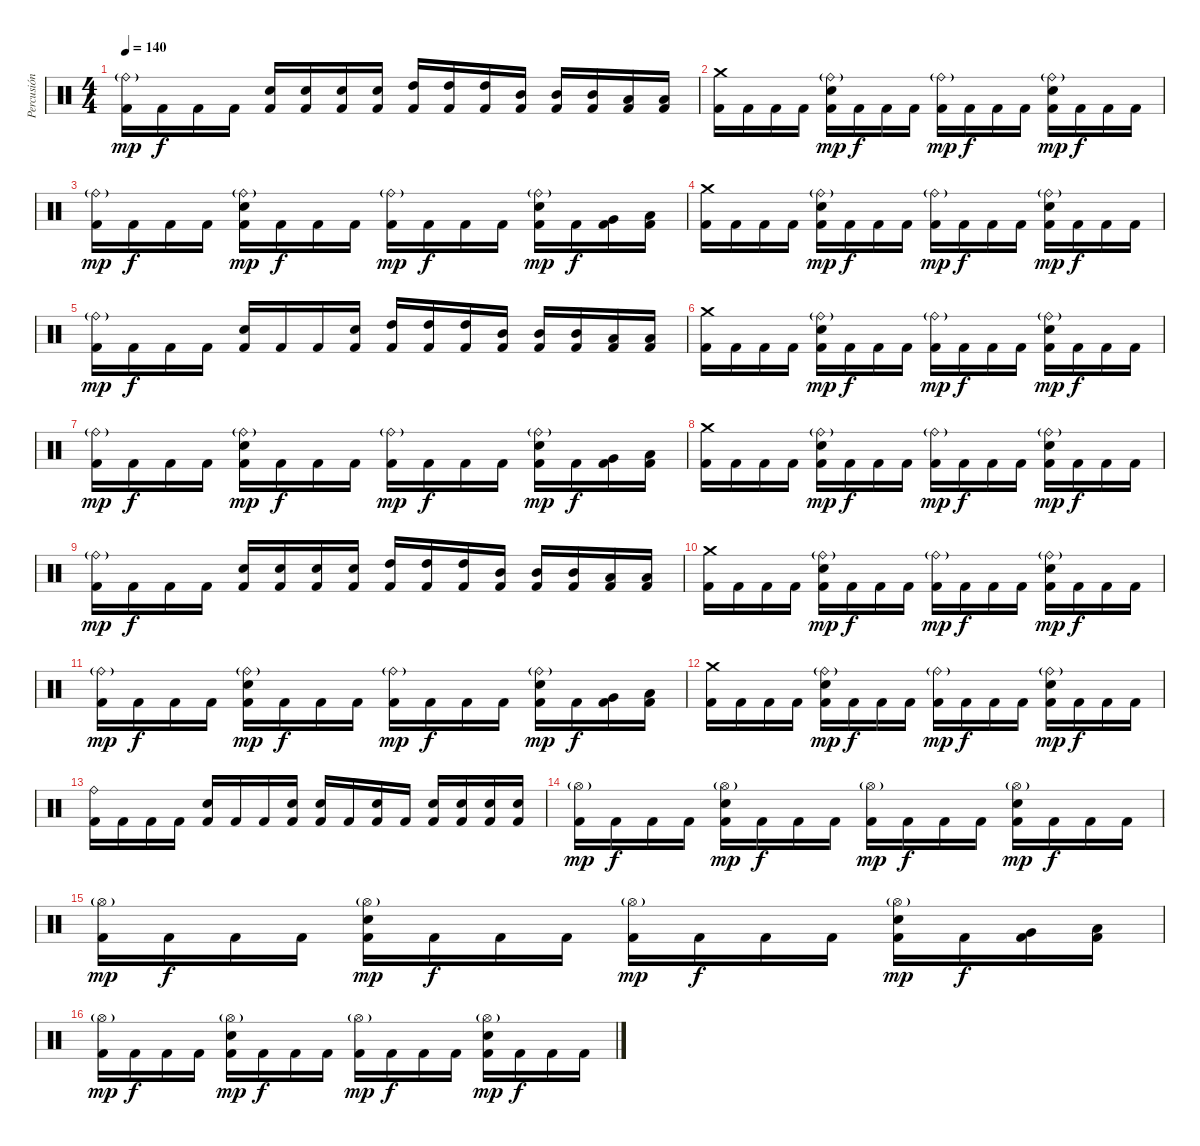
\track ("Percusión" "Percusión") {instrument percussion}
\staff {score}
\articulation defaults
\ts (4 4)
\tempo 140
\clef neutral
\ks c
("Ride (bell)"{g} "Kick (hit) 2").16{dy mp} "Kick (hit) 2".16{dy f} "Kick (hit) 2".16 "Kick (hit) 2".16 ("Electric Snare (hit)" "Kick (hit) 2").16 ("Electric Snare (hit)" "Kick (hit) 2").16 ("Electric Snare (hit)" "Kick (hit) 2").16 ("Electric Snare (hit)" "Kick (hit) 2").16 ("High Tom (hit)" "Kick (hit) 2").16 ("High Tom (hit)" "Kick (hit) 2").16 ("High Tom (hit)" "Kick (hit) 2").16 ("Mid Tom (hit)" "Kick (hit) 2").16 ("Mid Tom (hit)" "Kick (hit) 2").16 ("Mid Tom (hit)" "Kick (hit) 2").16 ("Low Tom (hit)" "Kick (hit) 2").16 ("Low Tom (hit)" "Kick (hit) 2").16 |
("Crash medium (hit)" "Kick (hit) 2").16 "Kick (hit) 2".16 "Kick (hit) 2".16 "Kick (hit) 2".16 ("Ride (bell)"{g} "Electric Snare (hit)" "Kick (hit) 2").16{dy mp} "Kick (hit) 2".16{dy f} "Kick (hit) 2".16 "Kick (hit) 2".16 ("Ride (bell)"{g} "Kick (hit) 2").16{dy mp} "Kick (hit) 2".16{dy f} "Kick (hit) 2".16 "Kick (hit) 2".16 ("Ride (bell)"{g} "Electric Snare (hit)" "Kick (hit) 2").16{dy mp} "Kick (hit) 2".16{dy f} "Kick (hit) 2".16 "Kick (hit) 2".16 |
("Ride (bell)"{g} "Kick (hit) 2").16{dy mp} "Kick (hit) 2".16{dy f} "Kick (hit) 2".16 "Kick (hit) 2".16 ("Ride (bell)"{g} "Electric Snare (hit)" "Kick (hit) 2").16{dy mp} "Kick (hit) 2".16{dy f} "Kick (hit) 2".16 "Kick (hit) 2".16 ("Ride (bell)"{g} "Kick (hit) 2").16{dy mp} "Kick (hit) 2".16{dy f} "Kick (hit) 2".16 "Kick (hit) 2".16 ("Ride (bell)"{g} "Electric Snare (hit)" "Kick (hit) 2").16{dy mp} "Kick (hit) 2".16{dy f} ("Very Low Tom (hit)" "Kick (hit) 2").16 ("Low Floor Tom (hit)" "Kick (hit) 2").16 |
("Crash medium (hit)" "Kick (hit) 2").16 "Kick (hit) 2".16 "Kick (hit) 2".16 "Kick (hit) 2".16 ("Ride (bell)"{g} "Electric Snare (hit)" "Kick (hit) 2").16{dy mp} "Kick (hit) 2".16{dy f} "Kick (hit) 2".16 "Kick (hit) 2".16 ("Ride (bell)"{g} "Kick (hit) 2").16{dy mp} "Kick (hit) 2".16{dy f} "Kick (hit) 2".16 "Kick (hit) 2".16 ("Ride (bell)"{g} "Electric Snare (hit)" "Kick (hit) 2").16{dy mp} "Kick (hit) 2".16{dy f} "Kick (hit) 2".16 "Kick (hit) 2".16 |
("Ride (bell)"{g} "Kick (hit) 2").16{dy mp} "Kick (hit) 2".16{dy f} "Kick (hit) 2".16 "Kick (hit) 2".16 ("Electric Snare (hit)" "Kick (hit) 2").16 "Kick (hit) 2".16 "Kick (hit) 2".16 ("Electric Snare (hit)" "Kick (hit) 2").16 ("High Tom (hit)" "Kick (hit) 2").16 ("High Tom (hit)" "Kick (hit) 2").16 ("High Tom (hit)" "Kick (hit) 2").16 ("Mid Tom (hit)" "Kick (hit) 2").16 ("Mid Tom (hit)" "Kick (hit) 2").16 ("Mid Tom (hit)" "Kick (hit) 2").16 ("Low Tom (hit)" "Kick (hit) 2").16 ("Low Tom (hit)" "Kick (hit) 2").16 |
("Crash medium (hit)" "Kick (hit) 2").16 "Kick (hit) 2".16 "Kick (hit) 2".16 "Kick (hit) 2".16 ("Ride (bell)"{g} "Electric Snare (hit)" "Kick (hit) 2").16{dy mp} "Kick (hit) 2".16{dy f} "Kick (hit) 2".16 "Kick (hit) 2".16 ("Ride (bell)"{g} "Kick (hit) 2").16{dy mp} "Kick (hit) 2".16{dy f} "Kick (hit) 2".16 "Kick (hit) 2".16 ("Ride (bell)"{g} "Electric Snare (hit)" "Kick (hit) 2").16{dy mp} "Kick (hit) 2".16{dy f} "Kick (hit) 2".16 "Kick (hit) 2".16 |
("Ride (bell)"{g} "Kick (hit) 2").16{dy mp} "Kick (hit) 2".16{dy f} "Kick (hit) 2".16 "Kick (hit) 2".16 ("Ride (bell)"{g} "Electric Snare (hit)" "Kick (hit) 2").16{dy mp} "Kick (hit) 2".16{dy f} "Kick (hit) 2".16 "Kick (hit) 2".16 ("Ride (bell)"{g} "Kick (hit) 2").16{dy mp} "Kick (hit) 2".16{dy f} "Kick (hit) 2".16 "Kick (hit) 2".16 ("Ride (bell)"{g} "Electric Snare (hit)" "Kick (hit) 2").16{dy mp} "Kick (hit) 2".16{dy f} ("Very Low Tom (hit)" "Kick (hit) 2").16 ("Low Floor Tom (hit)" "Kick (hit) 2").16 |
("Crash medium (hit)" "Kick (hit) 2").16 "Kick (hit) 2".16 "Kick (hit) 2".16 "Kick (hit) 2".16 ("Ride (bell)"{g} "Electric Snare (hit)" "Kick (hit) 2").16{dy mp} "Kick (hit) 2".16{dy f} "Kick (hit) 2".16 "Kick (hit) 2".16 ("Ride (bell)"{g} "Kick (hit) 2").16{dy mp} "Kick (hit) 2".16{dy f} "Kick (hit) 2".16 "Kick (hit) 2".16 ("Ride (bell)"{g} "Electric Snare (hit)" "Kick (hit) 2").16{dy mp} "Kick (hit) 2".16{dy f} "Kick (hit) 2".16 "Kick (hit) 2".16 |
("Ride (bell)"{g} "Kick (hit) 2").16{dy mp} "Kick (hit) 2".16{dy f} "Kick (hit) 2".16 "Kick (hit) 2".16 ("Electric Snare (hit)" "Kick (hit) 2").16 ("Electric Snare (hit)" "Kick (hit) 2").16 ("Electric Snare (hit)" "Kick (hit) 2").16 ("Electric Snare (hit)" "Kick (hit) 2").16 ("High Tom (hit)" "Kick (hit) 2").16 ("High Tom (hit)" "Kick (hit) 2").16 ("High Tom (hit)" "Kick (hit) 2").16 ("Mid Tom (hit)" "Kick (hit) 2").16 ("Mid Tom (hit)" "Kick (hit) 2").16 ("Mid Tom (hit)" "Kick (hit) 2").16 ("Low Tom (hit)" "Kick (hit) 2").16 ("Low Tom (hit)" "Kick (hit) 2").16 |
("Crash medium (hit)" "Kick (hit) 2").16 "Kick (hit) 2".16 "Kick (hit) 2".16 "Kick (hit) 2".16 ("Ride (bell)"{g} "Electric Snare (hit)" "Kick (hit) 2").16{dy mp} "Kick (hit) 2".16{dy f} "Kick (hit) 2".16 "Kick (hit) 2".16 ("Ride (bell)"{g} "Kick (hit) 2").16{dy mp} "Kick (hit) 2".16{dy f} "Kick (hit) 2".16 "Kick (hit) 2".16 ("Ride (bell)"{g} "Electric Snare (hit)" "Kick (hit) 2").16{dy mp} "Kick (hit) 2".16{dy f} "Kick (hit) 2".16 "Kick (hit) 2".16 |
("Ride (bell)"{g} "Kick (hit) 2").16{dy mp} "Kick (hit) 2".16{dy f} "Kick (hit) 2".16 "Kick (hit) 2".16 ("Ride (bell)"{g} "Electric Snare (hit)" "Kick (hit) 2").16{dy mp} "Kick (hit) 2".16{dy f} "Kick (hit) 2".16 "Kick (hit) 2".16 ("Ride (bell)"{g} "Kick (hit) 2").16{dy mp} "Kick (hit) 2".16{dy f} "Kick (hit) 2".16 "Kick (hit) 2".16 ("Ride (bell)"{g} "Electric Snare (hit)" "Kick (hit) 2").16{dy mp} "Kick (hit) 2".16{dy f} ("Very Low Tom (hit)" "Kick (hit) 2").16 ("Low Floor Tom (hit)" "Kick (hit) 2").16 |
("Crash medium (hit)" "Kick (hit) 2").16 "Kick (hit) 2".16 "Kick (hit) 2".16 "Kick (hit) 2".16 ("Ride (bell)"{g} "Electric Snare (hit)" "Kick (hit) 2").16{dy mp} "Kick (hit) 2".16{dy f} "Kick (hit) 2".16 "Kick (hit) 2".16 ("Ride (bell)"{g} "Kick (hit) 2").16{dy mp} "Kick (hit) 2".16{dy f} "Kick (hit) 2".16 "Kick (hit) 2".16 ("Ride (bell)"{g} "Electric Snare (hit)" "Kick (hit) 2").16{dy mp} "Kick (hit) 2".16{dy f} "Kick (hit) 2".16 "Kick (hit) 2".16 |
("Ride (bell)" "Kick (hit) 2").16 "Kick (hit) 2".16 "Kick (hit) 2".16 "Kick (hit) 2".16 ("Electric Snare (hit)" "Kick (hit) 2").16 "Kick (hit) 2".16 "Kick (hit) 2".16 ("Electric Snare (hit)" "Kick (hit) 2").16 ("Electric Snare (hit)" "Kick (hit) 2").16 "Kick (hit) 2".16 ("Electric Snare (hit)" "Kick (hit) 2").16 "Kick (hit) 2".16 ("Electric Snare (hit)" "Kick (hit) 2").16 ("Electric Snare (hit)" "Kick (hit) 2").16 ("Electric Snare (hit)" "Kick (hit) 2").16 ("Electric Snare (hit)" "Kick (hit) 2").16 |
("Hi-Hat (open)"{g} "Kick (hit) 2").16{dy mp} "Kick (hit) 2".16{dy f} "Kick (hit) 2".16 "Kick (hit) 2".16 ("Hi-Hat (open)"{g} "Electric Snare (hit)" "Kick (hit) 2").16{dy mp} "Kick (hit) 2".16{dy f} "Kick (hit) 2".16 "Kick (hit) 2".16 ("Hi-Hat (open)"{g} "Kick (hit) 2").16{dy mp} "Kick (hit) 2".16{dy f} "Kick (hit) 2".16 "Kick (hit) 2".16 ("Hi-Hat (open)"{g} "Electric Snare (hit)" "Kick (hit) 2").16{dy mp} "Kick (hit) 2".16{dy f} "Kick (hit) 2".16 "Kick (hit) 2".16 |
("Hi-Hat (open)"{g} "Kick (hit) 2").16{dy mp} "Kick (hit) 2".16{dy f} "Kick (hit) 2".16 "Kick (hit) 2".16 ("Hi-Hat (open)"{g} "Electric Snare (hit)" "Kick (hit) 2").16{dy mp} "Kick (hit) 2".16{dy f} "Kick (hit) 2".16 "Kick (hit) 2".16 ("Hi-Hat (open)"{g} "Kick (hit) 2").16{dy mp} "Kick (hit) 2".16{dy f} "Kick (hit) 2".16 "Kick (hit) 2".16 ("Hi-Hat (open)"{g} "Electric Snare (hit)" "Kick (hit) 2").16{dy mp} "Kick (hit) 2".16{dy f} ("Very Low Tom (hit)" "Kick (hit) 2").16 ("Low Floor Tom (hit)" "Kick (hit) 2").16 |
("Hi-Hat (open)"{g} "Kick (hit) 2").16{dy mp} "Kick (hit) 2".16{dy f} "Kick (hit) 2".16 "Kick (hit) 2".16 ("Hi-Hat (open)"{g} "Electric Snare (hit)" "Kick (hit) 2").16{dy mp} "Kick (hit) 2".16{dy f} "Kick (hit) 2".16 "Kick (hit) 2".16 ("Hi-Hat (open)"{g} "Kick (hit) 2").16{dy mp} "Kick (hit) 2".16{dy f} "Kick (hit) 2".16 "Kick (hit) 2".16 ("Hi-Hat (open)"{g} "Electric Snare (hit)" "Kick (hit) 2").16{dy mp} "Kick (hit) 2".16{dy f} "Kick (hit) 2".16 "Kick (hit) 2".16
